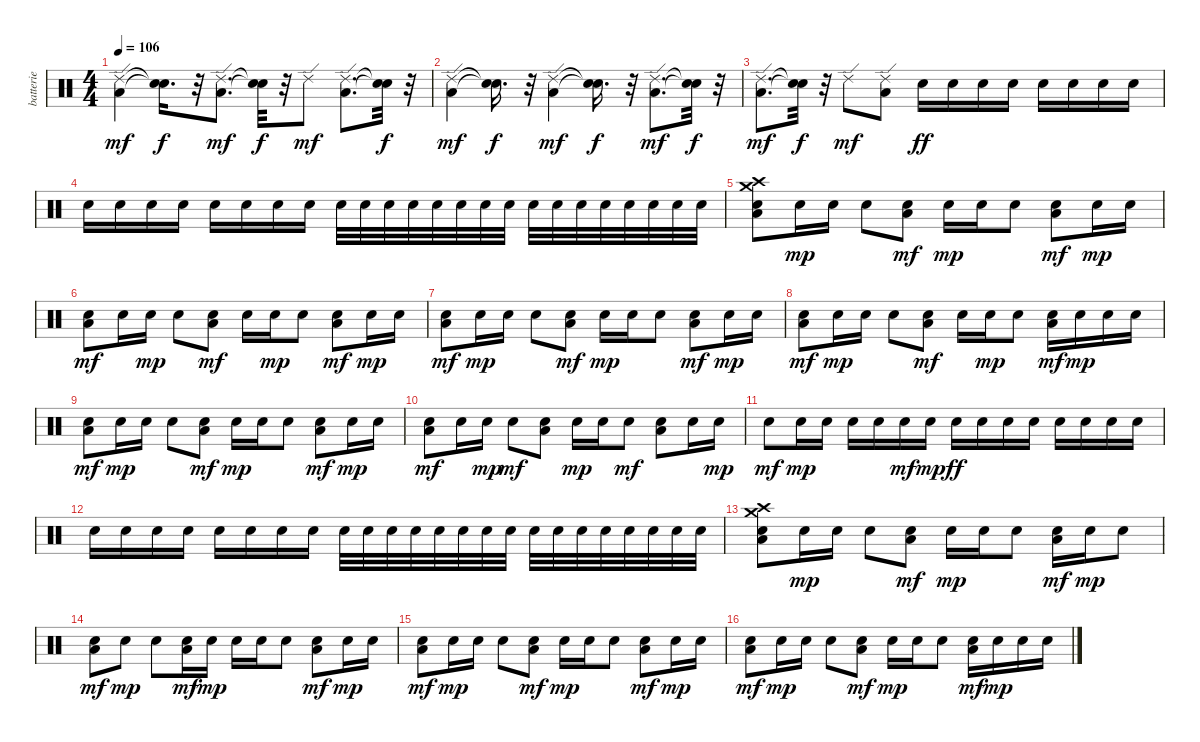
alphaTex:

\track ("batterie" "batterie") {instrument percussion}
\staff {score}
\articulation defaults
\ts (4 4)
\tempo 106
\clef neutral
\ks c
("Low Floor Tom (hit)" "Ride (edge) 2").4{dy mf} ("Snare (hit)"{t} "Snare (hit)"{t}).16{d dy f} r.32 ("Low Floor Tom (hit)" "Ride (edge) 2").8{d dy mf} ("Snare (hit)"{t} "Snare (hit)"{t}).32{dy f} r.32 "Ride (edge) 2".8{dy mf} ("Low Floor Tom (hit)" "Ride (edge) 2").8{d} ("Snare (hit)"{t} "Snare (hit)"{t}).32{dy f} r.32 |
("Low Floor Tom (hit)" "Ride (edge) 2").4{dy mf} ("Snare (hit)"{t} "Snare (hit)"{t}).16{d dy f} r.32 ("Low Floor Tom (hit)" "Ride (edge) 2").4{dy mf} ("Snare (hit)"{t} "Snare (hit)"{t}).16{d dy f} r.32 ("Low Floor Tom (hit)" "Ride (edge) 2").8{d dy mf} ("Snare (hit)"{t} "Snare (hit)"{t}).32{dy f} r.32 |
("Low Floor Tom (hit)" "Ride (edge) 2").8{d dy mf} ("Snare (hit)"{t} "Snare (hit)"{t}).32{dy f} r.32 "Ride (edge) 2".8{dy mf} ("Low Floor Tom (hit)" "Ride (edge) 2").8 "Electric Snare (hit)".16{dy ff volume 5} "Electric Snare (hit)".16{volume 6} "Electric Snare (hit)".16{volume 8} "Electric Snare (hit)".16{volume 9} "Electric Snare (hit)".16{volume 10} "Electric Snare (hit)".16{volume 12} "Electric Snare (hit)".16{volume 13} "Electric Snare (hit)".16{volume 14} |
"Electric Snare (hit)".16{volume 16} "Electric Snare (hit)".16 "Electric Snare (hit)".16 "Electric Snare (hit)".16 "Electric Snare (hit)".16 "Electric Snare (hit)".16 "Electric Snare (hit)".16 "Electric Snare (hit)".16 "Electric Snare (hit)".32 "Electric Snare (hit)".32 "Electric Snare (hit)".32 "Electric Snare (hit)".32 "Electric Snare (hit)".32 "Electric Snare (hit)".32 "Electric Snare (hit)".32 "Electric Snare (hit)".32 "Electric Snare (hit)".32 "Electric Snare (hit)".32 "Electric Snare (hit)".32 "Electric Snare (hit)".32 "Electric Snare (hit)".32 "Electric Snare (hit)".32 "Electric Snare (hit)".32 "Electric Snare (hit)".32 |
("Electric Snare (hit)" "Low Floor Tom (hit)" "Crash high (hit)" "Crash medium (hit)").8 "Electric Snare (hit)".16{dy mp} "Electric Snare (hit)".16 "Electric Snare (hit)".8 ("Electric Snare (hit)" "Low Floor Tom (hit)").8{dy mf} "Electric Snare (hit)".16{dy mp} "Electric Snare (hit)".16 "Electric Snare (hit)".8 ("Electric Snare (hit)" "Low Floor Tom (hit)").8{dy mf} "Electric Snare (hit)".16{dy mp} "Electric Snare (hit)".16 |
("Electric Snare (hit)" "Low Floor Tom (hit)").8{dy mf} "Electric Snare (hit)".16 "Electric Snare (hit)".16{dy mp} "Electric Snare (hit)".8 ("Electric Snare (hit)" "Low Floor Tom (hit)").8{dy mf} "Electric Snare (hit)".16 "Electric Snare (hit)".16{dy mp} "Electric Snare (hit)".8 ("Electric Snare (hit)" "Low Floor Tom (hit)").8{dy mf} "Electric Snare (hit)".16{dy mp} "Electric Snare (hit)".16 |
("Electric Snare (hit)" "Low Floor Tom (hit)").8{dy mf} "Electric Snare (hit)".16{dy mp} "Electric Snare (hit)".16 "Electric Snare (hit)".8 ("Electric Snare (hit)" "Low Floor Tom (hit)").8{dy mf} "Electric Snare (hit)".16{dy mp} "Electric Snare (hit)".16 "Electric Snare (hit)".8 ("Electric Snare (hit)" "Low Floor Tom (hit)").8{dy mf} "Electric Snare (hit)".16{dy mp} "Electric Snare (hit)".16 |
("Electric Snare (hit)" "Low Floor Tom (hit)").8{dy mf} "Electric Snare (hit)".16{dy mp} "Electric Snare (hit)".16 "Electric Snare (hit)".8 ("Electric Snare (hit)" "Low Floor Tom (hit)").8{dy mf} "Electric Snare (hit)".16 "Electric Snare (hit)".16{dy mp} "Electric Snare (hit)".8 ("Electric Snare (hit)" "Low Floor Tom (hit)").16{dy mf} "Electric Snare (hit)".16{dy mp} "Electric Snare (hit)".16 "Electric Snare (hit)".16 |
("Electric Snare (hit)" "Low Floor Tom (hit)").8{dy mf} "Electric Snare (hit)".16{dy mp} "Electric Snare (hit)".16 "Electric Snare (hit)".8 ("Electric Snare (hit)" "Low Floor Tom (hit)").8{dy mf} "Electric Snare (hit)".16{dy mp} "Electric Snare (hit)".16 "Electric Snare (hit)".8 ("Electric Snare (hit)" "Low Floor Tom (hit)").8{dy mf} "Electric Snare (hit)".16{dy mp} "Electric Snare (hit)".16 |
("Electric Snare (hit)" "Low Floor Tom (hit)").8{dy mf} "Electric Snare (hit)".16 "Electric Snare (hit)".16{dy mp} "Electric Snare (hit)".8{dy mf} ("Electric Snare (hit)" "Low Floor Tom (hit)").8 "Electric Snare (hit)".16{dy mp} "Electric Snare (hit)".16 "Electric Snare (hit)".8{dy mf} ("Electric Snare (hit)" "Low Floor Tom (hit)").8 "Electric Snare (hit)".16 "Electric Snare (hit)".16{dy mp} |
"Electric Snare (hit)".8{dy mf} "Electric Snare (hit)".16{dy mp} "Electric Snare (hit)".16 "Electric Snare (hit)".16 "Electric Snare (hit)".16 "Electric Snare (hit)".16{dy mf} "Electric Snare (hit)".16{dy mp} "Electric Snare (hit)".16{dy ff volume 5} "Electric Snare (hit)".16{volume 6} "Electric Snare (hit)".16{volume 8} "Electric Snare (hit)".16{volume 9} "Electric Snare (hit)".16{volume 10} "Electric Snare (hit)".16{volume 12} "Electric Snare (hit)".16{volume 13} "Electric Snare (hit)".16{volume 14} |
"Electric Snare (hit)".16{volume 16} "Electric Snare (hit)".16 "Electric Snare (hit)".16 "Electric Snare (hit)".16 "Electric Snare (hit)".16 "Electric Snare (hit)".16 "Electric Snare (hit)".16 "Electric Snare (hit)".16 "Electric Snare (hit)".32 "Electric Snare (hit)".32 "Electric Snare (hit)".32 "Electric Snare (hit)".32 "Electric Snare (hit)".32 "Electric Snare (hit)".32 "Electric Snare (hit)".32 "Electric Snare (hit)".32 "Electric Snare (hit)".32 "Electric Snare (hit)".32 "Electric Snare (hit)".32 "Electric Snare (hit)".32 "Electric Snare (hit)".32 "Electric Snare (hit)".32 "Electric Snare (hit)".32 "Electric Snare (hit)".32 |
("Electric Snare (hit)" "Low Floor Tom (hit)" "Crash high (hit)" "Crash medium (hit)").8 "Electric Snare (hit)".16{dy mp} "Electric Snare (hit)".16 "Electric Snare (hit)".8 ("Electric Snare (hit)" "Low Floor Tom (hit)").8{dy mf} "Electric Snare (hit)".16{dy mp} "Electric Snare (hit)".16 "Electric Snare (hit)".8 ("Electric Snare (hit)" "Low Floor Tom (hit)").16{dy mf} "Electric Snare (hit)".16{dy mp} "Electric Snare (hit)".8 |
("Electric Snare (hit)" "Low Floor Tom (hit)").8{dy mf} "Electric Snare (hit)".8{dy mp} "Electric Snare (hit)".8 ("Electric Snare (hit)" "Low Floor Tom (hit)").16{dy mf} "Electric Snare (hit)".16{dy mp} "Electric Snare (hit)".16 "Electric Snare (hit)".16 "Electric Snare (hit)".8 ("Electric Snare (hit)" "Low Floor Tom (hit)").8{dy mf} "Electric Snare (hit)".16{dy mp} "Electric Snare (hit)".16 |
("Electric Snare (hit)" "Low Floor Tom (hit)").8{dy mf} "Electric Snare (hit)".16{dy mp} "Electric Snare (hit)".16 "Electric Snare (hit)".8 ("Electric Snare (hit)" "Low Floor Tom (hit)").8{dy mf} "Electric Snare (hit)".16{dy mp} "Electric Snare (hit)".16 "Electric Snare (hit)".8 ("Electric Snare (hit)" "Low Floor Tom (hit)").8{dy mf} "Electric Snare (hit)".16{dy mp} "Electric Snare (hit)".16 |
("Electric Snare (hit)" "Low Floor Tom (hit)").8{dy mf} "Electric Snare (hit)".16{dy mp} "Electric Snare (hit)".16 "Electric Snare (hit)".8 ("Electric Snare (hit)" "Low Floor Tom (hit)").8{dy mf} "Electric Snare (hit)".16{dy mp} "Electric Snare (hit)".16 "Electric Snare (hit)".8 ("Electric Snare (hit)" "Low Floor Tom (hit)").16{dy mf} "Electric Snare (hit)".16{dy mp} "Electric Snare (hit)".16 "Electric Snare (hit)".16
